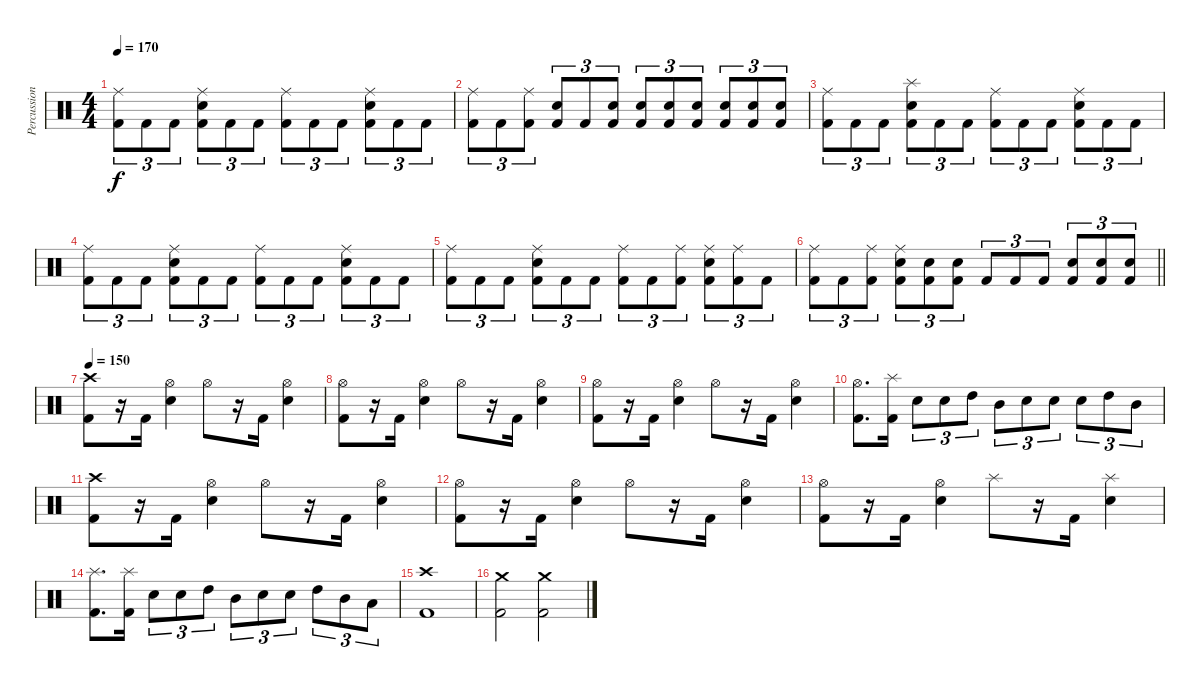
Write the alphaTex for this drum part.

\track ("Percussion" "Percussion") {instrument percussion}
\staff {score}
\articulation defaults
\ts (4 4)
\tempo 170
\clef neutral
\ks c
("Ride (middle)" "Kick (hit) 2").8{tu (3 2) dy f} "Kick (hit) 2".8{tu (3 2)} "Kick (hit) 2".8{tu (3 2)} ("Ride (middle)" "Electric Snare (hit)" "Kick (hit) 2").8{tu (3 2)} "Kick (hit) 2".8{tu (3 2)} "Kick (hit) 2".8{tu (3 2)} ("Ride (middle)" "Kick (hit) 2").8{tu (3 2)} "Kick (hit) 2".8{tu (3 2)} "Kick (hit) 2".8{tu (3 2)} ("Ride (middle)" "Electric Snare (hit)" "Kick (hit) 2").8{tu (3 2)} "Kick (hit) 2".8{tu (3 2)} "Kick (hit) 2".8{tu (3 2)} |
("Ride (middle)" "Kick (hit) 2").8{tu (3 2)} "Kick (hit) 2".8{tu (3 2)} ("Ride (middle)" "Kick (hit) 2").8{tu (3 2)} ("Electric Snare (hit)" "Kick (hit) 2").8{tu (3 2)} "Kick (hit) 2".8{tu (3 2)} ("Electric Snare (hit)" "Kick (hit) 2").8{tu (3 2)} ("Electric Snare (hit)" "Kick (hit) 2").8{tu (3 2)} ("Electric Snare (hit)" "Kick (hit) 2").8{tu (3 2)} ("Electric Snare (hit)" "Kick (hit) 2").8{tu (3 2)} ("Electric Snare (hit)" "Kick (hit) 2").8{tu (3 2)} ("Electric Snare (hit)" "Kick (hit) 2").8{tu (3 2)} ("Electric Snare (hit)" "Kick (hit) 2").8{tu (3 2)} |
("Ride (middle)" "Kick (hit) 2").8{tu (3 2)} "Kick (hit) 2".8{tu (3 2)} "Kick (hit) 2".8{tu (3 2)} ("Splash (hit)" "Electric Snare (hit)" "Kick (hit) 2").8{tu (3 2)} "Kick (hit) 2".8{tu (3 2)} "Kick (hit) 2".8{tu (3 2)} ("Ride (middle)" "Kick (hit) 2").8{tu (3 2)} "Kick (hit) 2".8{tu (3 2)} "Kick (hit) 2".8{tu (3 2)} ("Ride (middle)" "Electric Snare (hit)" "Kick (hit) 2").8{tu (3 2)} "Kick (hit) 2".8{tu (3 2)} "Kick (hit) 2".8{tu (3 2)} |
("Ride (middle)" "Kick (hit) 2").8{tu (3 2)} "Kick (hit) 2".8{tu (3 2)} "Kick (hit) 2".8{tu (3 2)} ("Ride (middle)" "Electric Snare (hit)" "Kick (hit) 2").8{tu (3 2)} "Kick (hit) 2".8{tu (3 2)} "Kick (hit) 2".8{tu (3 2)} ("Ride (middle)" "Kick (hit) 2").8{tu (3 2)} "Kick (hit) 2".8{tu (3 2)} "Kick (hit) 2".8{tu (3 2)} ("Ride (middle)" "Electric Snare (hit)" "Kick (hit) 2").8{tu (3 2)} "Kick (hit) 2".8{tu (3 2)} "Kick (hit) 2".8{tu (3 2)} |
("Ride (middle)" "Kick (hit) 2").8{tu (3 2)} "Kick (hit) 2".8{tu (3 2)} "Kick (hit) 2".8{tu (3 2)} ("Ride (middle)" "Electric Snare (hit)" "Kick (hit) 2").8{tu (3 2)} "Kick (hit) 2".8{tu (3 2)} "Kick (hit) 2".8{tu (3 2)} ("Ride (middle)" "Kick (hit) 2").8{tu (3 2)} "Kick (hit) 2".8{tu (3 2)} ("Ride (middle)" "Kick (hit) 2").8{tu (3 2)} ("Ride (middle)" "Electric Snare (hit)" "Kick (hit) 2").8{tu (3 2)} ("Ride (middle)" "Kick (hit) 2").8{tu (3 2)} "Kick (hit) 2".8{tu (3 2)} |
\barLineRight lightlight
("Ride (middle)" "Kick (hit) 2").8{tu (3 2)} "Kick (hit) 2".8{tu (3 2)} ("Ride (middle)" "Kick (hit) 2").8{tu (3 2)} ("Ride (middle)" "Electric Snare (hit)" "Kick (hit) 2").8{tu (3 2)} ("Electric Snare (hit)" "Kick (hit) 2").8{tu (3 2)} ("Electric Snare (hit)" "Kick (hit) 2").8{tu (3 2)} "Kick (hit) 2".8{tu (3 2)} "Kick (hit) 2".8{tu (3 2)} "Kick (hit) 2".8{tu (3 2)} ("Electric Snare (hit)" "Kick (hit) 2").8{tu (3 2)} ("Electric Snare (hit)" "Kick (hit) 2").8{tu (3 2)} ("Electric Snare (hit)" "Kick (hit) 2").8{tu (3 2)} |
\section ("" "")
\tempo 150
("Crash high (hit)" "Kick (hit) 2").8 r.16 "Kick (hit) 2".16 ("Hi-Hat (open)" "Electric Snare (hit)").4 "Hi-Hat (open)".8 r.16 "Kick (hit) 2".16 ("Hi-Hat (open)" "Electric Snare (hit)").4 |
("Hi-Hat (open)" "Kick (hit) 2").8 r.16 "Kick (hit) 2".16 ("Hi-Hat (open)" "Electric Snare (hit)").4 "Hi-Hat (open)".8 r.16 "Kick (hit) 2".16 ("Hi-Hat (open)" "Electric Snare (hit)").4 |
("Hi-Hat (open)" "Kick (hit) 2").8 r.16 "Kick (hit) 2".16 ("Hi-Hat (open)" "Electric Snare (hit)").4 "Hi-Hat (open)".8 r.16 "Kick (hit) 2".16 ("Hi-Hat (open)" "Electric Snare (hit)").4 |
("Hi-Hat (open)" "Kick (hit) 2").8{d} ("Splash (hit)" "Kick (hit) 2").16 "Electric Snare (hit)".8{tu (3 2)} "Electric Snare (hit)".8{tu (3 2)} "High Tom (hit)".8{tu (3 2)} "Mid Tom (hit)".8{tu (3 2)} "Electric Snare (hit)".8{tu (3 2)} "Electric Snare (hit)".8{tu (3 2)} "Electric Snare (hit)".8{tu (3 2)} "High Tom (hit)".8{tu (3 2)} "Mid Tom (hit)".8{tu (3 2)} |
("Crash high (hit)" "Kick (hit) 2").8 r.16 "Kick (hit) 2".16 ("Hi-Hat (open)" "Electric Snare (hit)").4 "Hi-Hat (open)".8 r.16 "Kick (hit) 2".16 ("Hi-Hat (open)" "Electric Snare (hit)").4 |
("Hi-Hat (open)" "Kick (hit) 2").8 r.16 "Kick (hit) 2".16 ("Hi-Hat (open)" "Electric Snare (hit)").4 "Hi-Hat (open)".8 r.16 "Kick (hit) 2".16 ("Hi-Hat (open)" "Electric Snare (hit)").4 |
("Hi-Hat (open)" "Kick (hit) 2").8 r.16 "Kick (hit) 2".16 ("Hi-Hat (open)" "Electric Snare (hit)").4 "Splash (hit)".8 r.16 "Kick (hit) 2".16 ("Splash (hit)" "Electric Snare (hit)").4 |
("Splash (hit)" "Kick (hit) 2").8{d} ("Splash (hit)" "Kick (hit) 2").16 "Electric Snare (hit)".8{tu (3 2)} "Electric Snare (hit)".8{tu (3 2)} "High Tom (hit)".8{tu (3 2)} "Mid Tom (hit)".8{tu (3 2)} "Electric Snare (hit)".8{tu (3 2)} "Electric Snare (hit)".8{tu (3 2)} "High Tom (hit)".8{tu (3 2)} "Mid Tom (hit)".8{tu (3 2)} "Low Tom (hit)".8{tu (3 2)} |
("Crash high (hit)" "Kick (hit) 2").1 |
("Crash medium (hit)" "Kick (hit) 2").2 ("Crash medium (hit)" "Kick (hit) 2").2
